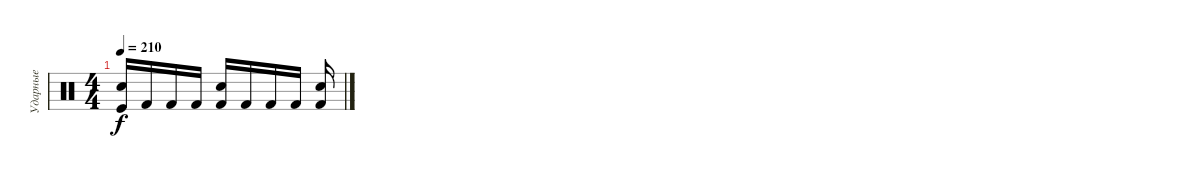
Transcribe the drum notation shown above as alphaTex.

\track ("Ударные" "Ударные") {instrument percussion}
\staff {score}
\articulation defaults
\ts (4 4)
\tempo 210
\clef neutral
\ks c
("Kick (hit)" "Electric Snare (hit)").16{dy f} "Kick (hit) 2".16 "Kick (hit) 2".16 "Kick (hit) 2".16 ("Kick (hit) 2" "Electric Snare (hit)").16 "Kick (hit) 2".16 "Kick (hit) 2".16 "Kick (hit) 2".16 ("Kick (hit) 2" "Electric Snare (hit)").16
